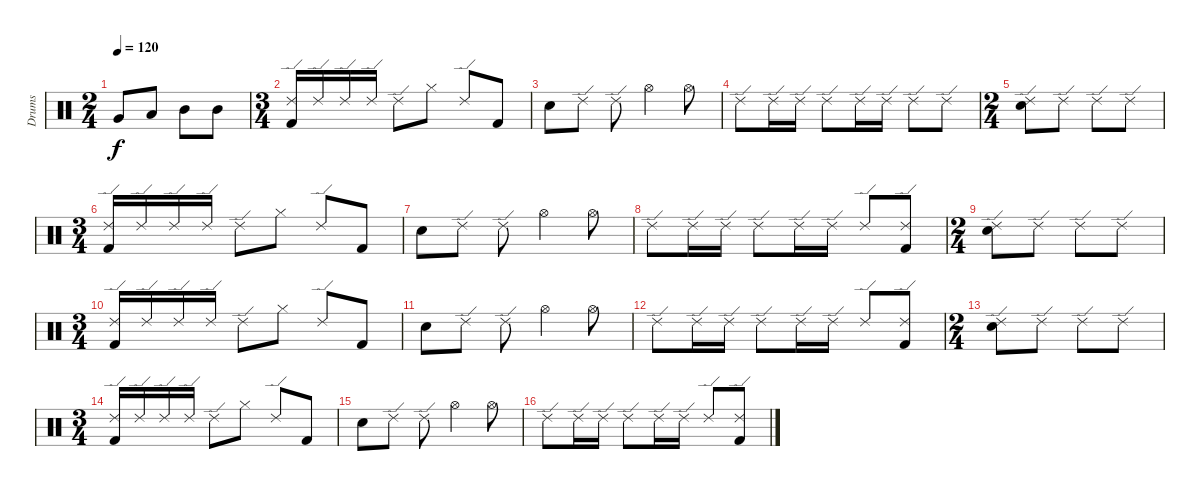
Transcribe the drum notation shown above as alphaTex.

\track ("Drums" "Drums") {instrument percussion}
\staff {score}
\articulation defaults
\ts (2 4)
\tempo 120
\clef neutral
\ks c "Very Low Tom (hit)".8{dy f} "Low Tom (hit)".8 "Mid Tom (hit)".8 "Mid Tom (hit)".8
|
\ts (3 4)
("Ride (edge) 2" "Kick (hit) 2").16 "Ride (edge) 2".16 "Ride (edge) 2".16 "Ride (edge) 2".16 "Ride (edge) 2".8 "Hi-Hat (closed)".8 "Ride (edge) 2".8 "Kick (hit) 2".8 |
"Electric Snare (hit)".8 "Ride (edge) 2".8 "Ride (edge) 2".8 "Hi-Hat (open)".4 "Hi-Hat (open)".8 |
"Ride (edge) 2".8 "Ride (edge) 2".16 "Ride (edge) 2".16 "Ride (edge) 2".8 "Ride (edge) 2".16 "Ride (edge) 2".16 "Ride (edge) 2".8 "Ride (edge) 2".8 |
\ts (2 4)
("Electric Snare (hit)" "Ride (edge) 2").8 "Ride (edge) 2".8 "Ride (edge) 2".8 "Ride (edge) 2".8 |
\ts (3 4)
("Ride (edge) 2" "Kick (hit) 2").16 "Ride (edge) 2".16 "Ride (edge) 2".16 "Ride (edge) 2".16 "Ride (edge) 2".8 "Hi-Hat (closed)".8 "Ride (edge) 2".8 "Kick (hit) 2".8 |
"Electric Snare (hit)".8 "Ride (edge) 2".8 "Ride (edge) 2".8 "Hi-Hat (open)".4 "Hi-Hat (open)".8 |
"Ride (edge) 2".8 "Ride (edge) 2".16 "Ride (edge) 2".16 "Ride (edge) 2".8 "Ride (edge) 2".16 "Ride (edge) 2".16 "Ride (edge) 2".8 ("Ride (edge) 2" "Kick (hit) 2").8 |
\ts (2 4)
("Electric Snare (hit)" "Ride (edge) 2").8 "Ride (edge) 2".8 "Ride (edge) 2".8 "Ride (edge) 2".8 |
\ts (3 4)
("Ride (edge) 2" "Kick (hit) 2").16 "Ride (edge) 2".16 "Ride (edge) 2".16 "Ride (edge) 2".16 "Ride (edge) 2".8 "Hi-Hat (closed)".8 "Ride (edge) 2".8 "Kick (hit) 2".8 |
"Electric Snare (hit)".8 "Ride (edge) 2".8 "Ride (edge) 2".8 "Hi-Hat (open)".4 "Hi-Hat (open)".8 |
"Ride (edge) 2".8 "Ride (edge) 2".16 "Ride (edge) 2".16 "Ride (edge) 2".8 "Ride (edge) 2".16 "Ride (edge) 2".16 "Ride (edge) 2".8 ("Ride (edge) 2" "Kick (hit) 2").8 |
\ts (2 4)
("Electric Snare (hit)" "Ride (edge) 2").8 "Ride (edge) 2".8 "Ride (edge) 2".8 "Ride (edge) 2".8 |
\ts (3 4)
("Ride (edge) 2" "Kick (hit) 2").16 "Ride (edge) 2".16 "Ride (edge) 2".16 "Ride (edge) 2".16 "Ride (edge) 2".8 "Hi-Hat (closed)".8 "Ride (edge) 2".8 "Kick (hit) 2".8 |
"Electric Snare (hit)".8 "Ride (edge) 2".8 "Ride (edge) 2".8 "Hi-Hat (open)".4 "Hi-Hat (open)".8 |
"Ride (edge) 2".8 "Ride (edge) 2".16 "Ride (edge) 2".16 "Ride (edge) 2".8 "Ride (edge) 2".16 "Ride (edge) 2".16 "Ride (edge) 2".8 ("Ride (edge) 2" "Kick (hit) 2").8
